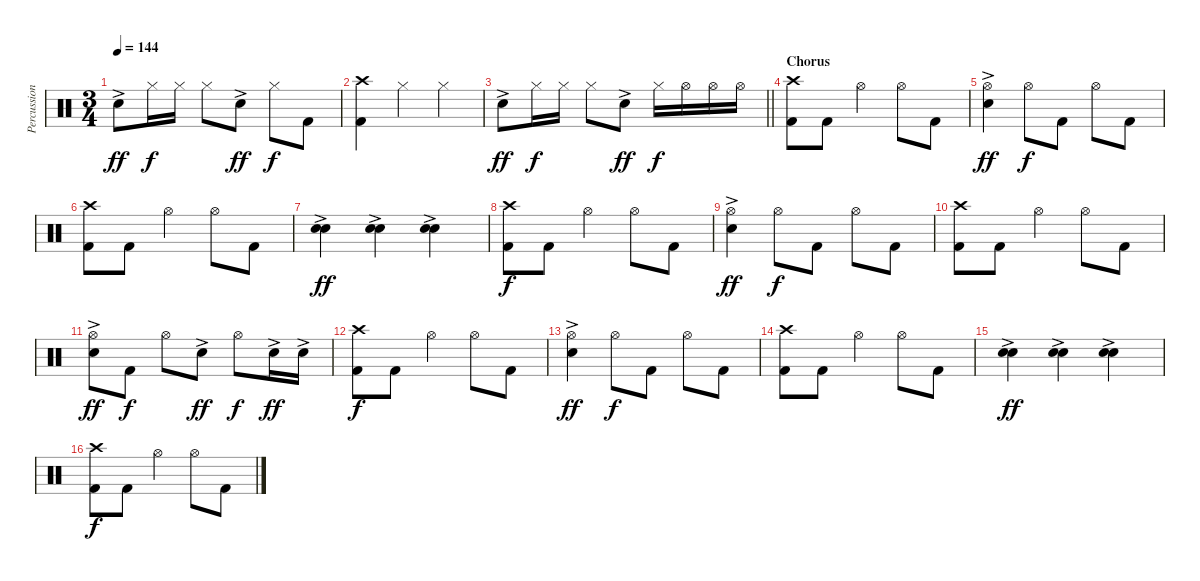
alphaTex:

\track ("Percussion" "Percussion") {instrument percussion}
\staff {score}
\articulation defaults
\ts (3 4)
\tempo 144
\clef neutral
\ks c "Electric Snare (hit)"{ac}.8{dy ff} "Hi-Hat (closed)".16{dy f} "Hi-Hat (closed)".16 "Hi-Hat (closed)".8 "Electric Snare (hit)"{ac}.8{dy ff} "Hi-Hat (closed)".8{dy f} "Kick (hit) 2".8
|
("Crash high (hit)" "Kick (hit) 2").4 "Hi-Hat (closed)".4 "Hi-Hat (closed)".4 |
\barLineRight lightlight "Electric Snare (hit)"{ac}.8{dy ff} "Hi-Hat (closed)".16{dy f} "Hi-Hat (closed)".16 "Hi-Hat (closed)".8 "Electric Snare (hit)"{ac}.8{dy ff} "Hi-Hat (closed)".16{dy f} "Hi-Hat (open)".16 "Hi-Hat (open)".16 "Hi-Hat (open)".16
|
\section ("" "Chorus")
("Crash high (hit)" "Kick (hit) 2").8 "Kick (hit) 2".8 "Hi-Hat (open)".4 "Hi-Hat (open)".8 "Kick (hit) 2".8 |
("Hi-Hat (open)" "Electric Snare (hit)"{ac}).4{dy ff} "Hi-Hat (open)".8{dy f} "Kick (hit) 2".8 "Hi-Hat (open)".8 "Kick (hit) 2".8 |
("Crash high (hit)" "Kick (hit) 2").8 "Kick (hit) 2".8 "Hi-Hat (open)".4 "Hi-Hat (open)".8 "Kick (hit) 2".8 |
("Electric Snare (hit)"{ac} "Electric Snare (hit)").4{bu 120 dy ff} ("Electric Snare (hit)"{ac} "Electric Snare (hit)").4{bu 120} ("Electric Snare (hit)"{ac} "Electric Snare (hit)").4{bu 120} |
("Crash high (hit)" "Kick (hit) 2").8{dy f} "Kick (hit) 2".8 "Hi-Hat (open)".4 "Hi-Hat (open)".8 "Kick (hit) 2".8 |
("Hi-Hat (open)" "Electric Snare (hit)"{ac}).4{dy ff} "Hi-Hat (open)".8{dy f} "Kick (hit) 2".8 "Hi-Hat (open)".8 "Kick (hit) 2".8 |
("Crash high (hit)" "Kick (hit) 2").8 "Kick (hit) 2".8 "Hi-Hat (open)".4 "Hi-Hat (open)".8 "Kick (hit) 2".8 |
("Hi-Hat (open)" "Electric Snare (hit)"{ac}).8{dy ff} "Kick (hit) 2".8{dy f} "Hi-Hat (open)".8 "Electric Snare (hit)"{ac}.8{dy ff} "Hi-Hat (open)".8{dy f} "Electric Snare (hit)"{ac}.16{dy ff} "Electric Snare (hit)"{ac}.16 |
("Crash high (hit)" "Kick (hit) 2").8{dy f} "Kick (hit) 2".8 "Hi-Hat (open)".4 "Hi-Hat (open)".8 "Kick (hit) 2".8 |
("Hi-Hat (open)" "Electric Snare (hit)"{ac}).4{dy ff} "Hi-Hat (open)".8{dy f} "Kick (hit) 2".8 "Hi-Hat (open)".8 "Kick (hit) 2".8 |
("Crash high (hit)" "Kick (hit) 2").8 "Kick (hit) 2".8 "Hi-Hat (open)".4 "Hi-Hat (open)".8 "Kick (hit) 2".8 |
("Electric Snare (hit)"{ac} "Electric Snare (hit)").4{bu 120 dy ff} ("Electric Snare (hit)"{ac} "Electric Snare (hit)").4{bu 120} ("Electric Snare (hit)"{ac} "Electric Snare (hit)").4{bu 120} |
("Crash high (hit)" "Kick (hit) 2").8{dy f} "Kick (hit) 2".8 "Hi-Hat (open)".4 "Hi-Hat (open)".8 "Kick (hit) 2".8
